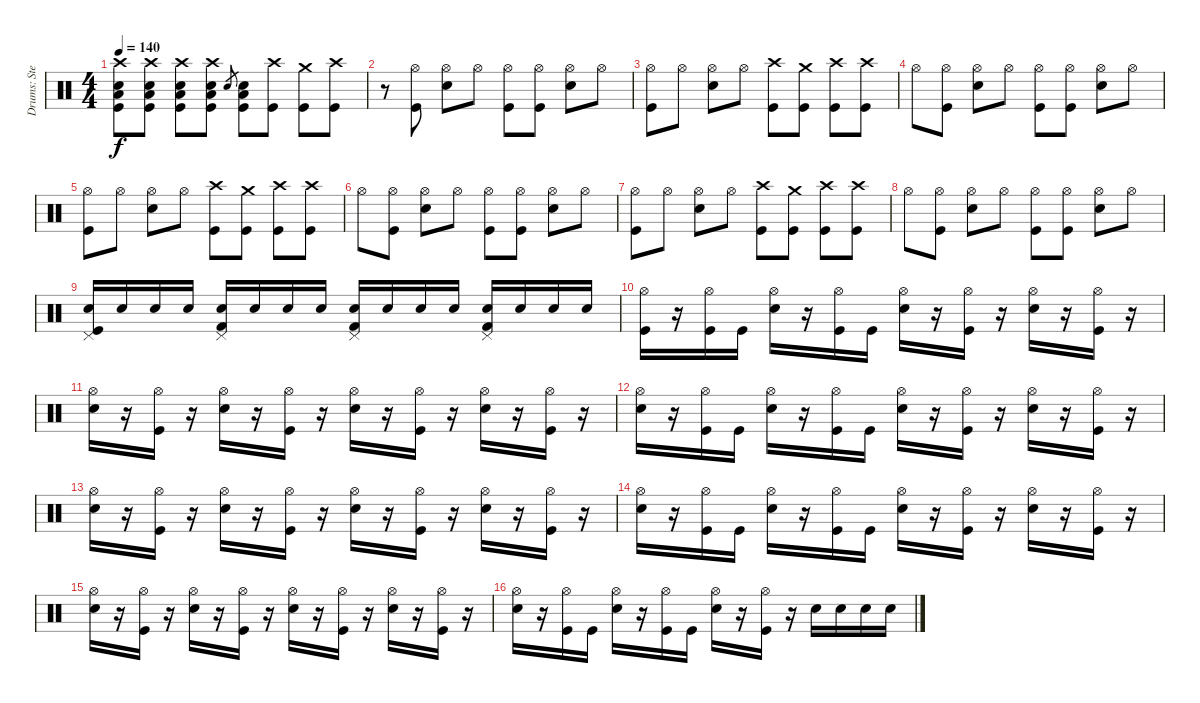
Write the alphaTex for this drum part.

\track ("Drums: Steven Adler" "Drums: Ste") {instrument percussion}
\staff {score}
\articulation defaults
\ts (4 4)
\tempo 140
\clef neutral
\ks c
("Crash high (hit)" "Electric Snare (hit)" "Low Floor Tom (hit)" "Kick (hit)").8{dy f} ("Crash high (hit)" "Electric Snare (hit)" "Low Floor Tom (hit)" "Kick (hit)").8 ("Crash high (hit)" "Electric Snare (hit)" "Low Floor Tom (hit)" "Kick (hit)").8 ("Crash high (hit)" "Electric Snare (hit)" "Low Floor Tom (hit)" "Kick (hit)").8 "Electric Snare (hit)".8{gr} ("Electric Snare (hit)" "Low Floor Tom (hit)" "Kick (hit)").8 ("Crash high (hit)" "Kick (hit)").8 ("Crash medium (hit)" "Kick (hit)").8 ("Crash high (hit)" "Kick (hit)").8 |
r.8 ("Hi-Hat (open)" "Kick (hit)").8 ("Hi-Hat (open)" "Electric Snare (hit)").8 "Hi-Hat (open)".8 ("Hi-Hat (open)" "Kick (hit)").8 ("Hi-Hat (open)" "Kick (hit)").8 ("Hi-Hat (open)" "Electric Snare (hit)").8 "Hi-Hat (open)".8 |
("Hi-Hat (open)" "Kick (hit)").8 "Hi-Hat (open)".8 ("Hi-Hat (open)" "Electric Snare (hit)").8 "Hi-Hat (open)".8 ("Crash high (hit)" "Kick (hit)").8 ("Crash medium (hit)" "Kick (hit)").8 ("Crash high (hit)" "Kick (hit)").8 ("Crash high (hit)" "Kick (hit)").8 |
"Hi-Hat (open)".8 ("Hi-Hat (open)" "Kick (hit)").8 ("Hi-Hat (open)" "Electric Snare (hit)").8 "Hi-Hat (open)".8 ("Hi-Hat (open)" "Kick (hit)").8 ("Hi-Hat (open)" "Kick (hit)").8 ("Hi-Hat (open)" "Electric Snare (hit)").8 "Hi-Hat (open)".8 |
("Hi-Hat (open)" "Kick (hit)").8 "Hi-Hat (open)".8 ("Hi-Hat (open)" "Electric Snare (hit)").8 "Hi-Hat (open)".8 ("Crash high (hit)" "Kick (hit)").8 ("Crash medium (hit)" "Kick (hit)").8 ("Crash high (hit)" "Kick (hit)").8 ("Crash high (hit)" "Kick (hit)").8 |
"Hi-Hat (open)".8 ("Hi-Hat (open)" "Kick (hit)").8 ("Hi-Hat (open)" "Electric Snare (hit)").8 "Hi-Hat (open)".8 ("Hi-Hat (open)" "Kick (hit)").8 ("Hi-Hat (open)" "Kick (hit)").8 ("Hi-Hat (open)" "Electric Snare (hit)").8 "Hi-Hat (open)".8 |
("Hi-Hat (open)" "Kick (hit)").8 "Hi-Hat (open)".8 ("Hi-Hat (open)" "Electric Snare (hit)").8 "Hi-Hat (open)".8 ("Crash high (hit)" "Kick (hit)").8 ("Crash medium (hit)" "Kick (hit)").8 ("Crash high (hit)" "Kick (hit)").8 ("Crash high (hit)" "Kick (hit)").8 |
"Hi-Hat (open)".8 ("Hi-Hat (open)" "Kick (hit)").8 ("Hi-Hat (open)" "Electric Snare (hit)").8 "Hi-Hat (open)".8 ("Hi-Hat (open)" "Kick (hit)").8 ("Hi-Hat (open)" "Kick (hit)").8 ("Hi-Hat (open)" "Electric Snare (hit)").8 "Hi-Hat (open)".8 |
("Pedal Hi-Hat (hit)" "Electric Snare (hit)" "Kick (hit)").16 "Electric Snare (hit)".16 "Electric Snare (hit)".16 "Electric Snare (hit)".16 ("Pedal Hi-Hat (hit)" "Electric Snare (hit)" "Kick (hit) 2").16 "Electric Snare (hit)".16 "Electric Snare (hit)".16 "Electric Snare (hit)".16 ("Pedal Hi-Hat (hit)" "Electric Snare (hit)" "Kick (hit) 2").16 "Electric Snare (hit)".16 "Electric Snare (hit)".16 "Electric Snare (hit)".16 ("Pedal Hi-Hat (hit)" "Electric Snare (hit)" "Kick (hit) 2").16 "Electric Snare (hit)".16 "Electric Snare (hit)".16 "Electric Snare (hit)".16 |
("Hi-Hat (open)" "Kick (hit)").16 r.16 ("Hi-Hat (open)" "Kick (hit)").16 "Kick (hit)".16 ("Hi-Hat (open)" "Electric Snare (hit)").16 r.16 ("Hi-Hat (open)" "Kick (hit)").16 "Kick (hit)".16 ("Hi-Hat (open)" "Electric Snare (hit)").16 r.16 ("Hi-Hat (open)" "Kick (hit)").16 r.16 ("Hi-Hat (open)" "Electric Snare (hit)").16 r.16 ("Hi-Hat (open)" "Kick (hit)").16 r.16 |
("Hi-Hat (open)" "Electric Snare (hit)").16 r.16 ("Hi-Hat (open)" "Kick (hit)").16 r.16 ("Hi-Hat (open)" "Electric Snare (hit)").16 r.16 ("Hi-Hat (open)" "Kick (hit)").16 r.16 ("Hi-Hat (open)" "Electric Snare (hit)").16 r.16 ("Hi-Hat (open)" "Kick (hit)").16 r.16 ("Hi-Hat (open)" "Electric Snare (hit)").16 r.16 ("Hi-Hat (open)" "Kick (hit)").16 r.16 |
("Hi-Hat (open)" "Electric Snare (hit)").16 r.16 ("Hi-Hat (open)" "Kick (hit)").16 "Kick (hit)".16 ("Hi-Hat (open)" "Electric Snare (hit)").16 r.16 ("Hi-Hat (open)" "Kick (hit)").16 "Kick (hit)".16 ("Hi-Hat (open)" "Electric Snare (hit)").16 r.16 ("Hi-Hat (open)" "Kick (hit)").16 r.16 ("Hi-Hat (open)" "Electric Snare (hit)").16 r.16 ("Hi-Hat (open)" "Kick (hit)").16 r.16 |
("Hi-Hat (open)" "Electric Snare (hit)").16 r.16 ("Hi-Hat (open)" "Kick (hit)").16 r.16 ("Hi-Hat (open)" "Electric Snare (hit)").16 r.16 ("Hi-Hat (open)" "Kick (hit)").16 r.16 ("Hi-Hat (open)" "Electric Snare (hit)").16 r.16 ("Hi-Hat (open)" "Kick (hit)").16 r.16 ("Hi-Hat (open)" "Electric Snare (hit)").16 r.16 ("Hi-Hat (open)" "Kick (hit)").16 r.16 |
("Hi-Hat (open)" "Electric Snare (hit)").16 r.16 ("Hi-Hat (open)" "Kick (hit)").16 "Kick (hit)".16 ("Hi-Hat (open)" "Electric Snare (hit)").16 r.16 ("Hi-Hat (open)" "Kick (hit)").16 "Kick (hit)".16 ("Hi-Hat (open)" "Electric Snare (hit)").16 r.16 ("Hi-Hat (open)" "Kick (hit)").16 r.16 ("Hi-Hat (open)" "Electric Snare (hit)").16 r.16 ("Hi-Hat (open)" "Kick (hit)").16 r.16 |
("Hi-Hat (open)" "Electric Snare (hit)").16 r.16 ("Hi-Hat (open)" "Kick (hit)").16 r.16 ("Hi-Hat (open)" "Electric Snare (hit)").16 r.16 ("Hi-Hat (open)" "Kick (hit)").16 r.16 ("Hi-Hat (open)" "Electric Snare (hit)").16 r.16 ("Hi-Hat (open)" "Kick (hit)").16 r.16 ("Hi-Hat (open)" "Electric Snare (hit)").16 r.16 ("Hi-Hat (open)" "Kick (hit)").16 r.16 |
("Hi-Hat (open)" "Electric Snare (hit)").16 r.16 ("Hi-Hat (open)" "Kick (hit)").16 "Kick (hit)".16 ("Hi-Hat (open)" "Electric Snare (hit)").16 r.16 ("Hi-Hat (open)" "Kick (hit)").16 "Kick (hit)".16 ("Hi-Hat (open)" "Electric Snare (hit)").16 r.16 ("Hi-Hat (open)" "Kick (hit)").16 r.16 "Electric Snare (hit)".16 "Electric Snare (hit)".16 "Electric Snare (hit)".16 "Electric Snare (hit)".16
